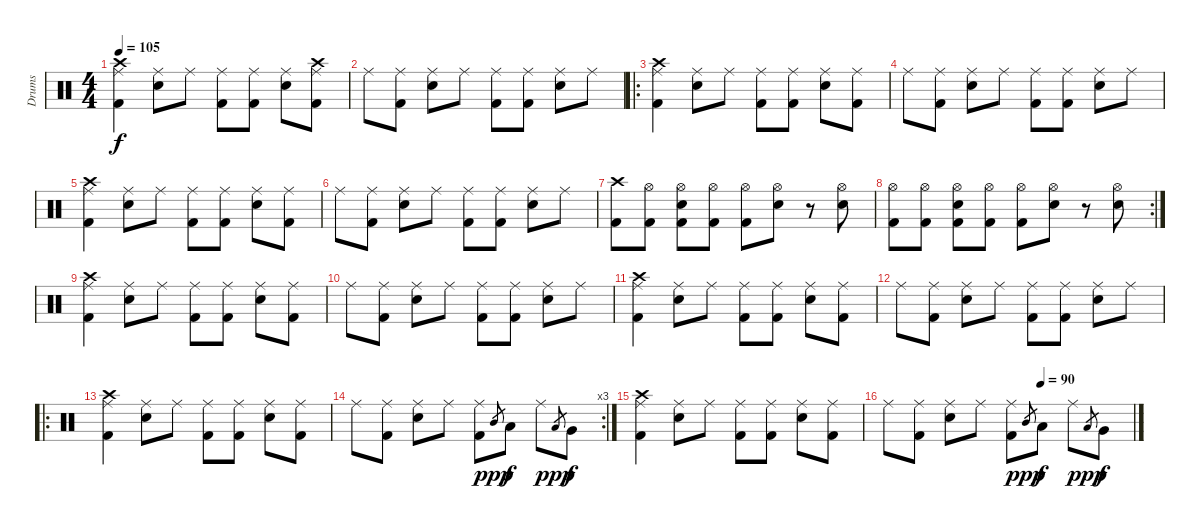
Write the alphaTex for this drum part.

\track ("Drums" "Drums") {instrument percussion}
\staff {score}
\articulation defaults
\ts (4 4)
\tempo 105
\clef neutral
\ks c
("Ride (middle)" "Crash high (hit)" "Kick (hit) 2").4{dy f} ("Ride (middle)" "Electric Snare (hit)").8 "Ride (middle)".8 ("Ride (middle)" "Kick (hit) 2").8 ("Ride (middle)" "Kick (hit) 2").8 ("Ride (middle)" "Electric Snare (hit)").8 ("Ride (middle)" "Crash high (hit)" "Kick (hit) 2").8 |
"Ride (middle)".8 ("Ride (middle)" "Kick (hit) 2").8 ("Ride (middle)" "Electric Snare (hit)").8 "Ride (middle)".8 ("Ride (middle)" "Kick (hit) 2").8 ("Ride (middle)" "Kick (hit) 2").8 ("Ride (middle)" "Electric Snare (hit)").8 "Ride (middle)".8 |
\ro
("Ride (middle)" "Crash high (hit)" "Kick (hit) 2").4 ("Ride (middle)" "Electric Snare (hit)").8 "Ride (middle)".8 ("Ride (middle)" "Kick (hit) 2").8 ("Ride (middle)" "Kick (hit) 2").8 ("Ride (middle)" "Electric Snare (hit)").8 ("Ride (middle)" "Kick (hit) 2").8 |
"Ride (middle)".8 ("Ride (middle)" "Kick (hit) 2").8 ("Ride (middle)" "Electric Snare (hit)").8 "Ride (middle)".8 ("Ride (middle)" "Kick (hit) 2").8 ("Ride (middle)" "Kick (hit) 2").8 ("Ride (middle)" "Electric Snare (hit)").8 "Ride (middle)".8 |
("Ride (middle)" "Crash high (hit)" "Kick (hit) 2").4 ("Ride (middle)" "Electric Snare (hit)").8 "Ride (middle)".8 ("Ride (middle)" "Kick (hit) 2").8 ("Ride (middle)" "Kick (hit) 2").8 ("Ride (middle)" "Electric Snare (hit)").8 ("Ride (middle)" "Kick (hit) 2").8 |
"Ride (middle)".8 ("Ride (middle)" "Kick (hit) 2").8 ("Ride (middle)" "Electric Snare (hit)").8 "Ride (middle)".8 ("Ride (middle)" "Kick (hit) 2").8 ("Ride (middle)" "Kick (hit) 2").8 ("Ride (middle)" "Electric Snare (hit)").8 "Ride (middle)".8 |
("Crash high (hit)" "Kick (hit) 2").8 ("Hi-Hat (open)" "Kick (hit) 2").8 ("Hi-Hat (open)" "Electric Snare (hit)" "Kick (hit) 2").8 ("Hi-Hat (open)" "Kick (hit) 2").8 ("Hi-Hat (open)" "Kick (hit) 2").8 ("Hi-Hat (open)" "Electric Snare (hit)").8 r.8 ("Hi-Hat (open)" "Electric Snare (hit)").8 |
\rc 2
("Hi-Hat (open)" "Kick (hit) 2").8 ("Hi-Hat (open)" "Kick (hit) 2").8 ("Hi-Hat (open)" "Electric Snare (hit)" "Kick (hit) 2").8 ("Hi-Hat (open)" "Kick (hit) 2").8 ("Hi-Hat (open)" "Kick (hit) 2").8 ("Hi-Hat (open)" "Electric Snare (hit)").8 r.8 ("Hi-Hat (open)" "Electric Snare (hit)").8 |
("Ride (middle)" "Crash high (hit)" "Kick (hit) 2").4 ("Ride (middle)" "Electric Snare (hit)").8 "Ride (middle)".8 ("Ride (middle)" "Kick (hit) 2").8 ("Ride (middle)" "Kick (hit) 2").8 ("Ride (middle)" "Electric Snare (hit)").8 ("Ride (middle)" "Kick (hit) 2").8 |
"Ride (middle)".8 ("Ride (middle)" "Kick (hit) 2").8 ("Ride (middle)" "Electric Snare (hit)").8 "Ride (middle)".8 ("Ride (middle)" "Kick (hit) 2").8 ("Ride (middle)" "Kick (hit) 2").8 ("Ride (middle)" "Electric Snare (hit)").8 "Ride (middle)".8 |
("Ride (middle)" "Crash high (hit)" "Kick (hit) 2").4 ("Ride (middle)" "Electric Snare (hit)").8 "Ride (middle)".8 ("Ride (middle)" "Kick (hit) 2").8 ("Ride (middle)" "Kick (hit) 2").8 ("Ride (middle)" "Electric Snare (hit)").8 ("Ride (middle)" "Kick (hit) 2").8 |
"Ride (middle)".8 ("Ride (middle)" "Kick (hit) 2").8 ("Ride (middle)" "Electric Snare (hit)").8 "Ride (middle)".8 ("Ride (middle)" "Kick (hit) 2").8 ("Ride (middle)" "Kick (hit) 2").8 ("Ride (middle)" "Electric Snare (hit)").8 "Ride (middle)".8 |
\ro
("Ride (middle)" "Crash high (hit)" "Kick (hit) 2").4 ("Ride (middle)" "Electric Snare (hit)").8 "Ride (middle)".8 ("Ride (middle)" "Kick (hit) 2").8 ("Ride (middle)" "Kick (hit) 2").8 ("Ride (middle)" "Electric Snare (hit)").8 ("Ride (middle)" "Kick (hit) 2").8 |
\rc 3 "Ride (middle)".8
("Ride (middle)" "Kick (hit) 2").8 ("Ride (middle)" "Electric Snare (hit)").8 "Ride (middle)".8 ("Ride (middle)" "Kick (hit) 2").8 "Mid Tom (hit)".8{gr dy ppp} "Low Tom (hit)".8{dy f} "Ride (middle)".8 "Low Tom (hit)".8{gr dy ppp} "Very Low Tom (hit)".8{dy f} |
("Ride (middle)" "Crash high (hit)" "Kick (hit) 2").4 ("Ride (middle)" "Electric Snare (hit)").8 "Ride (middle)".8 ("Ride (middle)" "Kick (hit) 2").8 ("Ride (middle)" "Kick (hit) 2").8 ("Ride (middle)" "Electric Snare (hit)").8 ("Ride (middle)" "Kick (hit) 2").8 |
\tempo (90 0.625)
"Ride (middle)".8 ("Ride (middle)" "Kick (hit) 2").8 ("Ride (middle)" "Electric Snare (hit)").8 "Ride (middle)".8 ("Ride (middle)" "Kick (hit) 2").8 "Mid Tom (hit)".8{gr dy ppp} "Low Tom (hit)".8{dy f} "Ride (middle)".8 "Low Tom (hit)".8{gr dy ppp} "Very Low Tom (hit)".8{dy f}
